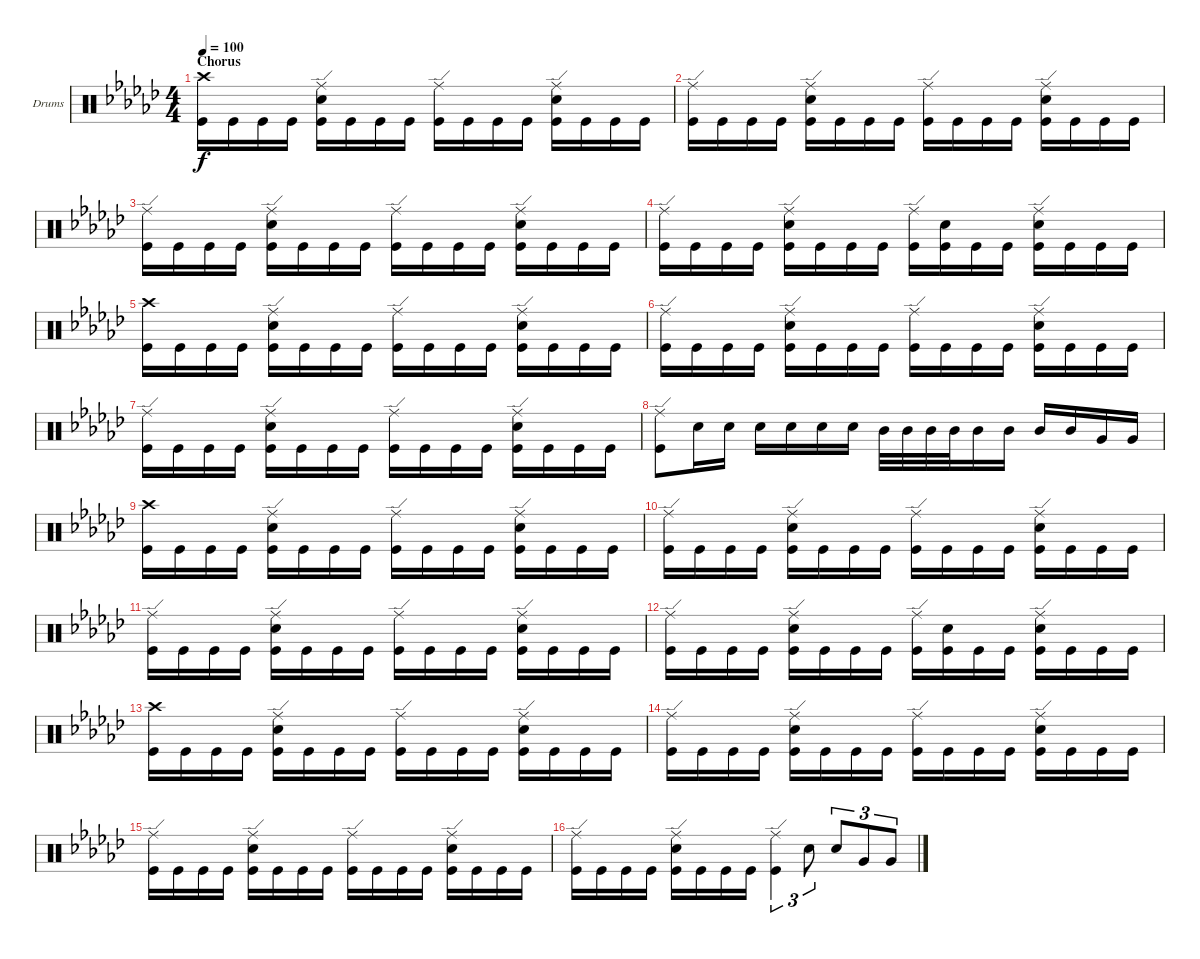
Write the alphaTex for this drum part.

\defaultSystemsLayout 4
\bracketExtendMode groupsimilarinstruments
\firstSystemTrackNameOrientation horizontal
\otherSystemsTrackNameOrientation horizontal
\track ("Drumkit" "Drums") {instrument percussion}
\staff {score}
\articulation defaults
\ts (4 4)
\section ("" "Chorus")
\tempo 100
\clef neutral
\scale
0.333333
\ks ebminor
("Kick (hit)" "Crash high (hit)").16{dy f} "Kick (hit)".16 "Kick (hit)".16 "Kick (hit)".16 ("Kick (hit)" "Snare (hit) 2" "Ride (edge)").16 "Kick (hit)".16 "Kick (hit)".16 "Kick (hit)".16 ("Kick (hit)" "Ride (edge)").16 "Kick (hit)".16 "Kick (hit)".16 "Kick (hit)".16 ("Kick (hit)" "Snare (hit) 2" "Ride (edge)").16 "Kick (hit)".16 "Kick (hit)".16 "Kick (hit)".16 |
\scale
0.333333 ("Kick (hit)" "Ride (edge)").16 "Kick (hit)".16 "Kick (hit)".16 "Kick (hit)".16 ("Kick (hit)" "Snare (hit) 2" "Ride (edge)").16 "Kick (hit)".16 "Kick (hit)".16 "Kick (hit)".16 ("Kick (hit)" "Ride (edge)").16 "Kick (hit)".16 "Kick (hit)".16 "Kick (hit)".16 ("Kick (hit)" "Snare (hit) 2" "Ride (edge)").16 "Kick (hit)".16 "Kick (hit)".16 "Kick (hit)".16 |
\scale
0.333333 ("Kick (hit)" "Ride (edge)").16 "Kick (hit)".16 "Kick (hit)".16 "Kick (hit)".16 ("Kick (hit)" "Snare (hit) 2" "Ride (edge)").16 "Kick (hit)".16 "Kick (hit)".16 "Kick (hit)".16 ("Kick (hit)" "Ride (edge)").16 "Kick (hit)".16 "Kick (hit)".16 "Kick (hit)".16 ("Kick (hit)" "Snare (hit) 2" "Ride (edge)").16 "Kick (hit)".16 "Kick (hit)".16 "Kick (hit)".16 |
\scale
0.333333 ("Kick (hit)" "Ride (edge)").16 "Kick (hit)".16 "Kick (hit)".16 "Kick (hit)".16 ("Kick (hit)" "Snare (hit) 2" "Ride (edge)").16 "Kick (hit)".16 "Kick (hit)".16 "Kick (hit)".16 ("Kick (hit)" "Ride (edge)").16 ("Kick (hit)" "Snare (hit) 2").16 "Kick (hit)".16 "Kick (hit)".16 ("Kick (hit)" "Snare (hit) 2" "Ride (edge)").16 "Kick (hit)".16 "Kick (hit)".16 "Kick (hit)".16 |
\scale
0.333333 ("Kick (hit)" "Crash high (hit)").16 "Kick (hit)".16 "Kick (hit)".16 "Kick (hit)".16 ("Kick (hit)" "Snare (hit) 2" "Ride (edge)").16 "Kick (hit)".16 "Kick (hit)".16 "Kick (hit)".16 ("Kick (hit)" "Ride (edge)").16 "Kick (hit)".16 "Kick (hit)".16 "Kick (hit)".16 ("Kick (hit)" "Snare (hit) 2" "Ride (edge)").16 "Kick (hit)".16 "Kick (hit)".16 "Kick (hit)".16 |
\scale
0.333333 ("Kick (hit)" "Ride (edge)").16 "Kick (hit)".16 "Kick (hit)".16 "Kick (hit)".16 ("Kick (hit)" "Snare (hit) 2" "Ride (edge)").16 "Kick (hit)".16 "Kick (hit)".16 "Kick (hit)".16 ("Kick (hit)" "Ride (edge)").16 "Kick (hit)".16 "Kick (hit)".16 "Kick (hit)".16 ("Kick (hit)" "Snare (hit) 2" "Ride (edge)").16 "Kick (hit)".16 "Kick (hit)".16 "Kick (hit)".16 |
\scale
0.333333 ("Kick (hit)" "Ride (edge)").16 "Kick (hit)".16 "Kick (hit)".16 "Kick (hit)".16 ("Kick (hit)" "Snare (hit) 2" "Ride (edge)").16 "Kick (hit)".16 "Kick (hit)".16 "Kick (hit)".16 ("Kick (hit)" "Ride (edge)").16 "Kick (hit)".16 "Kick (hit)".16 "Kick (hit)".16 ("Kick (hit)" "Snare (hit) 2" "Ride (edge)").16 "Kick (hit)".16 "Kick (hit)".16 "Kick (hit)".16 |
\scale
0.333333 ("Kick (hit)" "Ride (edge)").8 "Snare (hit) 2".16 "Snare (hit) 2".16 "Snare (hit) 2".16 "Snare (hit) 2".16 "Snare (hit) 2".16 "Snare (hit) 2".16 "Mid Tom (hit)".32 "Mid Tom (hit)".32 "Mid Tom (hit)".32 "Mid Tom (hit)".32 "Mid Tom (hit)".16 "Mid Tom (hit)".16 "Mid Tom (hit)".16 "Mid Tom (hit)".16 "Very Low Tom (hit)".16 "Very Low Tom (hit)".16 |
\scale
0.333333 ("Kick (hit)" "Crash high (hit)").16 "Kick (hit)".16 "Kick (hit)".16 "Kick (hit)".16 ("Kick (hit)" "Snare (hit) 2" "Ride (edge)").16 "Kick (hit)".16 "Kick (hit)".16 "Kick (hit)".16 ("Kick (hit)" "Ride (edge)").16 "Kick (hit)".16 "Kick (hit)".16 "Kick (hit)".16 ("Kick (hit)" "Snare (hit) 2" "Ride (edge)").16 "Kick (hit)".16 "Kick (hit)".16 "Kick (hit)".16 |
\scale
0.333333 ("Kick (hit)" "Ride (edge)").16 "Kick (hit)".16 "Kick (hit)".16 "Kick (hit)".16 ("Kick (hit)" "Snare (hit) 2" "Ride (edge)").16 "Kick (hit)".16 "Kick (hit)".16 "Kick (hit)".16 ("Kick (hit)" "Ride (edge)").16 "Kick (hit)".16 "Kick (hit)".16 "Kick (hit)".16 ("Kick (hit)" "Snare (hit) 2" "Ride (edge)").16 "Kick (hit)".16 "Kick (hit)".16 "Kick (hit)".16 |
\scale
0.333333 ("Kick (hit)" "Ride (edge)").16 "Kick (hit)".16 "Kick (hit)".16 "Kick (hit)".16 ("Kick (hit)" "Snare (hit) 2" "Ride (edge)").16 "Kick (hit)".16 "Kick (hit)".16 "Kick (hit)".16 ("Kick (hit)" "Ride (edge)").16 "Kick (hit)".16 "Kick (hit)".16 "Kick (hit)".16 ("Kick (hit)" "Snare (hit) 2" "Ride (edge)").16 "Kick (hit)".16 "Kick (hit)".16 "Kick (hit)".16 |
\scale
0.333333 ("Kick (hit)" "Ride (edge)").16 "Kick (hit)".16 "Kick (hit)".16 "Kick (hit)".16 ("Kick (hit)" "Snare (hit) 2" "Ride (edge)").16 "Kick (hit)".16 "Kick (hit)".16 "Kick (hit)".16 ("Kick (hit)" "Ride (edge)").16 ("Kick (hit)" "Snare (hit) 2").16 "Kick (hit)".16 "Kick (hit)".16 ("Kick (hit)" "Snare (hit) 2" "Ride (edge)").16 "Kick (hit)".16 "Kick (hit)".16 "Kick (hit)".16 |
\scale
0.333333 ("Kick (hit)" "Crash high (hit)").16 "Kick (hit)".16 "Kick (hit)".16 "Kick (hit)".16 ("Kick (hit)" "Snare (hit) 2" "Ride (edge)").16 "Kick (hit)".16 "Kick (hit)".16 "Kick (hit)".16 ("Kick (hit)" "Ride (edge)").16 "Kick (hit)".16 "Kick (hit)".16 "Kick (hit)".16 ("Kick (hit)" "Snare (hit) 2" "Ride (edge)").16 "Kick (hit)".16 "Kick (hit)".16 "Kick (hit)".16 |
\scale
0.333333 ("Kick (hit)" "Ride (edge)").16 "Kick (hit)".16 "Kick (hit)".16 "Kick (hit)".16 ("Kick (hit)" "Snare (hit) 2" "Ride (edge)").16 "Kick (hit)".16 "Kick (hit)".16 "Kick (hit)".16 ("Kick (hit)" "Ride (edge)").16 "Kick (hit)".16 "Kick (hit)".16 "Kick (hit)".16 ("Kick (hit)" "Snare (hit) 2" "Ride (edge)").16 "Kick (hit)".16 "Kick (hit)".16 "Kick (hit)".16 |
\scale
0.333333 ("Kick (hit)" "Ride (edge)").16 "Kick (hit)".16 "Kick (hit)".16 "Kick (hit)".16 ("Kick (hit)" "Snare (hit) 2" "Ride (edge)").16 "Kick (hit)".16 "Kick (hit)".16 "Kick (hit)".16 ("Kick (hit)" "Ride (edge)").16 "Kick (hit)".16 "Kick (hit)".16 "Kick (hit)".16 ("Kick (hit)" "Snare (hit) 2" "Ride (edge)").16 "Kick (hit)".16 "Kick (hit)".16 "Kick (hit)".16 |
\scale
0.333333 ("Kick (hit)" "Ride (edge)").16 "Kick (hit)".16 "Kick (hit)".16 "Kick (hit)".16 ("Kick (hit)" "Snare (hit) 2" "Ride (edge)").16 "Kick (hit)".16 "Kick (hit)".16 "Kick (hit)".16 ("Kick (hit)" "Ride (edge)").4{tu (3 2)} "Snare (hit) 2".8{tu (3 2)} "Snare (hit) 2".8{tu (3 2)} "Very Low Tom (hit)".8{tu (3 2)} "Very Low Tom (hit)".8{tu (3 2)}
